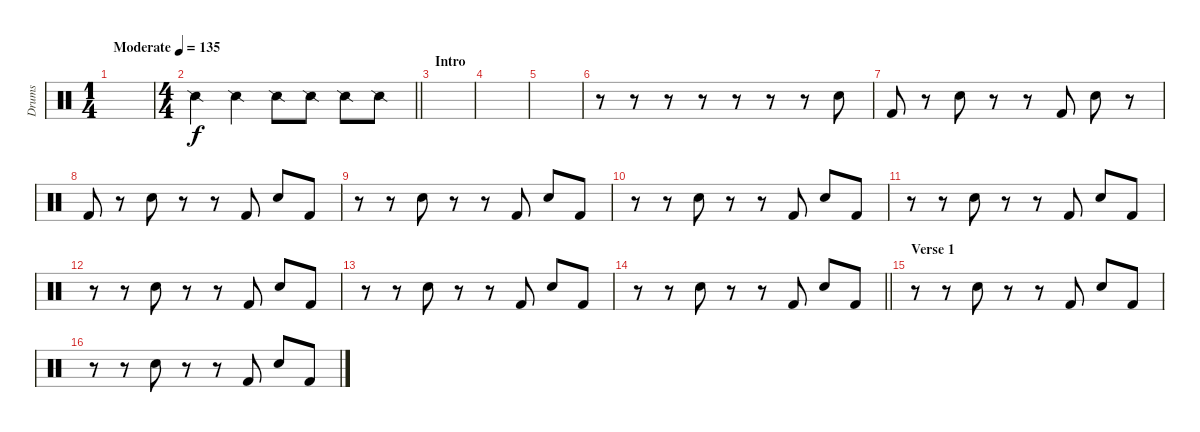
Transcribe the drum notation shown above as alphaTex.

\track ("Drums" "Drums") {instrument percussion}
\staff {score}
\articulation defaults
\ts (1 4)
\tempo (135 "Moderate")
\clef neutral
\ks c
|
\ts (4 4)
\barLineRight lightlight "Snare (side stick) 2".4 "Snare (side stick) 2".4 "Snare (side stick) 2".8 "Snare (side stick) 2".8 "Snare (side stick) 2".8 "Snare (side stick) 2".8
|
\section ("" "Intro")
|
|
|
r.8 r.8 r.8 r.8 r.8 r.8 r.8 "Snare (hit) 2".8 |
"Kick (hit) 2".8 r.8 "Snare (hit) 2".8 r.8 r.8 "Kick (hit) 2".8 "Snare (hit) 2".8 r.8 |
"Kick (hit) 2".8 r.8 "Snare (hit) 2".8 r.8 r.8 "Kick (hit) 2".8 "Snare (hit) 2".8 "Kick (hit) 2".8 |
r.8 r.8 "Snare (hit) 2".8 r.8 r.8 "Kick (hit) 2".8 "Snare (hit) 2".8 "Kick (hit) 2".8 |
r.8 r.8 "Snare (hit) 2".8 r.8 r.8 "Kick (hit) 2".8 "Snare (hit) 2".8 "Kick (hit) 2".8 |
r.8 r.8 "Snare (hit) 2".8 r.8 r.8 "Kick (hit) 2".8 "Snare (hit) 2".8 "Kick (hit) 2".8 |
r.8 r.8 "Snare (hit) 2".8 r.8 r.8 "Kick (hit) 2".8 "Snare (hit) 2".8 "Kick (hit) 2".8 |
r.8 r.8 "Snare (hit) 2".8 r.8 r.8 "Kick (hit) 2".8 "Snare (hit) 2".8 "Kick (hit) 2".8 |
\barLineRight lightlight
r.8 r.8 "Snare (hit) 2".8 r.8 r.8 "Kick (hit) 2".8 "Snare (hit) 2".8 "Kick (hit) 2".8 |
\section ("" "Verse 1")
r.8 r.8 "Snare (hit) 2".8 r.8 r.8 "Kick (hit) 2".8 "Snare (hit) 2".8 "Kick (hit) 2".8 |
r.8 r.8 "Snare (hit) 2".8 r.8 r.8 "Kick (hit) 2".8 "Snare (hit) 2".8 "Kick (hit) 2".8
